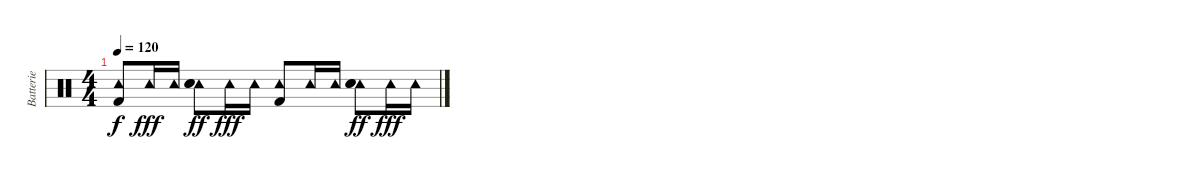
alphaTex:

\track ("Batterie" "Batterie") {instrument percussion}
\staff {score}
\articulation defaults
\ts (4 4)
\tempo 120
\clef neutral
\ks c
("Tambourine (hit)" "Kick (hit) 2").8{dy f} "Tambourine (hit)".16{dy fff} "Tambourine (hit)".16 ("Tambourine (hit)" "Electric Snare (hit)" "Hand Clap (hit)").8{dy ff} "Tambourine (hit)".16{dy fff} "Tambourine (hit)".16 ("Tambourine (hit)" "Kick (hit) 2").8 "Tambourine (hit)".16 "Tambourine (hit)".16 ("Tambourine (hit)" "Electric Snare (hit)" "Hand Clap (hit)").8{dy ff} "Tambourine (hit)".16{dy fff} "Tambourine (hit)".16
